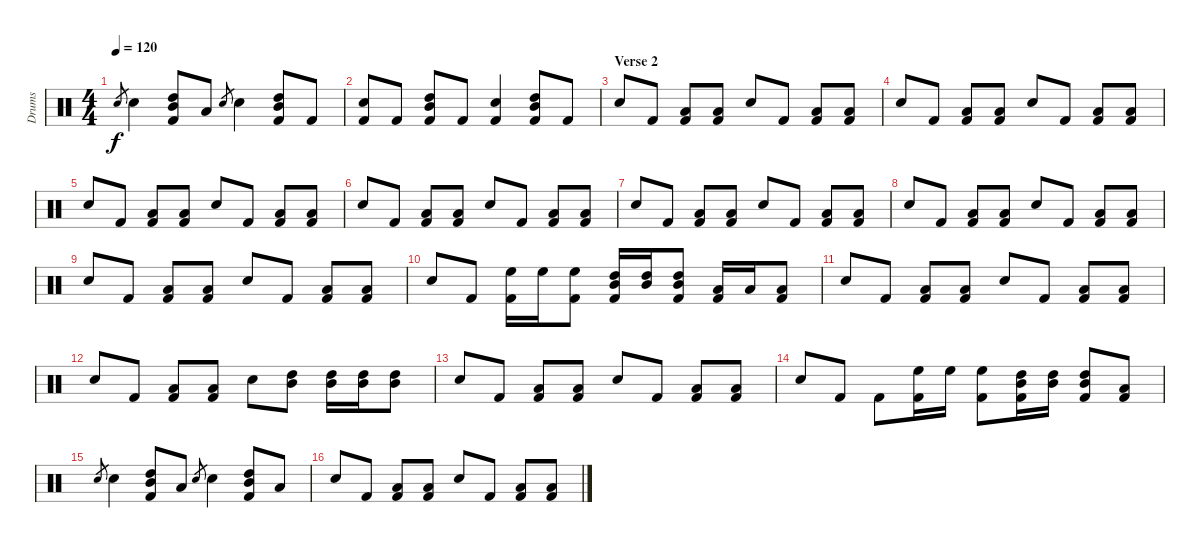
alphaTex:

\track ("Drums" "Drums") {instrument percussion}
\staff {score}
\articulation defaults
\ts (4 4)
\tempo 120
\clef neutral
\ks c "Snare (hit) 2".8{gr dy f} "Snare (hit) 2".4
("High Tom (hit)" "Mid Tom (hit)" "Kick (hit) 2").8 "Low Tom (hit)".8 "Snare (hit) 2".8{gr} "Snare (hit) 2".4 ("High Tom (hit)" "Mid Tom (hit)" "Kick (hit) 2").8 "Kick (hit) 2".8 |
("Snare (hit) 2" "Kick (hit) 2").8 "Kick (hit) 2".8 ("High Tom (hit)" "Mid Tom (hit)" "Kick (hit) 2").8 "Kick (hit) 2".8 ("Snare (hit) 2" "Kick (hit) 2").4 ("High Tom (hit)" "Mid Tom (hit)" "Kick (hit) 2").8 "Kick (hit) 2".8 |
\section ("" "Verse 2")
"Snare (hit) 2".8 "Kick (hit) 2".8 ("Low Tom (hit)" "Kick (hit) 2").8 ("Low Tom (hit)" "Kick (hit) 2").8 "Snare (hit) 2".8 "Kick (hit) 2".8 ("Low Tom (hit)" "Kick (hit) 2").8 ("Low Tom (hit)" "Kick (hit) 2").8 |
"Snare (hit) 2".8 "Kick (hit) 2".8 ("Low Tom (hit)" "Kick (hit) 2").8 ("Low Tom (hit)" "Kick (hit) 2").8 "Snare (hit) 2".8 "Kick (hit) 2".8 ("Low Tom (hit)" "Kick (hit) 2").8 ("Low Tom (hit)" "Kick (hit) 2").8 |
"Snare (hit) 2".8 "Kick (hit) 2".8 ("Low Tom (hit)" "Kick (hit) 2").8 ("Low Tom (hit)" "Kick (hit) 2").8 "Snare (hit) 2".8 "Kick (hit) 2".8 ("Low Tom (hit)" "Kick (hit) 2").8 ("Low Tom (hit)" "Kick (hit) 2").8 |
"Snare (hit) 2".8 "Kick (hit) 2".8 ("Low Tom (hit)" "Kick (hit) 2").8 ("Low Tom (hit)" "Kick (hit) 2").8 "Snare (hit) 2".8 "Kick (hit) 2".8 ("Low Tom (hit)" "Kick (hit) 2").8 ("Low Tom (hit)" "Kick (hit) 2").8 |
"Snare (hit) 2".8 "Kick (hit) 2".8 ("Low Tom (hit)" "Kick (hit) 2").8 ("Low Tom (hit)" "Kick (hit) 2").8 "Snare (hit) 2".8 "Kick (hit) 2".8 ("Low Tom (hit)" "Kick (hit) 2").8 ("Low Tom (hit)" "Kick (hit) 2").8 |
"Snare (hit) 2".8 "Kick (hit) 2".8 ("Low Tom (hit)" "Kick (hit) 2").8 ("Low Tom (hit)" "Kick (hit) 2").8 "Snare (hit) 2".8 "Kick (hit) 2".8 ("Low Tom (hit)" "Kick (hit) 2").8 ("Low Tom (hit)" "Kick (hit) 2").8 |
"Snare (hit) 2".8 "Kick (hit) 2".8 ("Low Tom (hit)" "Kick (hit) 2").8 ("Low Tom (hit)" "Kick (hit) 2").8 "Snare (hit) 2".8 "Kick (hit) 2".8 ("Low Tom (hit)" "Kick (hit) 2").8 ("Low Tom (hit)" "Kick (hit) 2").8 |
"Snare (hit) 2".8 "Kick (hit) 2".8 ("High Floor Tom (hit)" "Kick (hit) 2").16 "High Floor Tom (hit)".16 ("High Floor Tom (hit)" "Kick (hit) 2").8 ("High Tom (hit)" "Mid Tom (hit)" "Kick (hit) 2").16 ("High Tom (hit)" "Mid Tom (hit)").16 ("High Tom (hit)" "Mid Tom (hit)" "Kick (hit) 2").8 ("Low Tom (hit)" "Kick (hit) 2").16 "Low Tom (hit)".16 ("Low Tom (hit)" "Kick (hit) 2").8 |
"Snare (hit) 2".8 "Kick (hit) 2".8 ("Low Tom (hit)" "Kick (hit) 2").8 ("Low Tom (hit)" "Kick (hit) 2").8 "Snare (hit) 2".8 "Kick (hit) 2".8 ("Low Tom (hit)" "Kick (hit) 2").8 ("Low Tom (hit)" "Kick (hit) 2").8 |
"Snare (hit) 2".8 "Kick (hit) 2".8 ("Low Tom (hit)" "Kick (hit) 2").8 ("Low Tom (hit)" "Kick (hit) 2").8 "Snare (hit) 2".8 ("High Tom (hit)" "Mid Tom (hit)").8 ("High Tom (hit)" "Mid Tom (hit)").16 ("High Tom (hit)" "Mid Tom (hit)").16 ("High Tom (hit)" "Mid Tom (hit)").8 |
"Snare (hit) 2".8 "Kick (hit) 2".8 ("Low Tom (hit)" "Kick (hit) 2").8 ("Low Tom (hit)" "Kick (hit) 2").8 "Snare (hit) 2".8 "Kick (hit) 2".8 ("Low Tom (hit)" "Kick (hit) 2").8 ("Low Tom (hit)" "Kick (hit) 2").8 |
"Snare (hit) 2".8 "Kick (hit) 2".8 "Kick (hit) 2".8 ("High Floor Tom (hit)" "Kick (hit) 2").16 "High Floor Tom (hit)".16 ("High Floor Tom (hit)" "Kick (hit) 2").8 ("High Tom (hit)" "Mid Tom (hit)" "Kick (hit) 2").16 ("High Tom (hit)" "Mid Tom (hit)").16 ("High Tom (hit)" "Mid Tom (hit)" "Kick (hit) 2").8 ("Low Tom (hit)" "Kick (hit) 2").8 |
"Snare (hit) 2".8{gr} "Snare (hit) 2".4 ("High Tom (hit)" "Mid Tom (hit)" "Kick (hit) 2").8 "Low Tom (hit)".8 "Snare (hit) 2".8{gr} "Snare (hit) 2".4 ("High Tom (hit)" "Mid Tom (hit)" "Kick (hit) 2").8 "Low Tom (hit)".8 |
"Snare (hit) 2".8 "Kick (hit) 2".8 ("Low Tom (hit)" "Kick (hit) 2").8 ("Low Tom (hit)" "Kick (hit) 2").8 "Snare (hit) 2".8 "Kick (hit) 2".8 ("Low Tom (hit)" "Kick (hit) 2").8 ("Low Tom (hit)" "Kick (hit) 2").8
